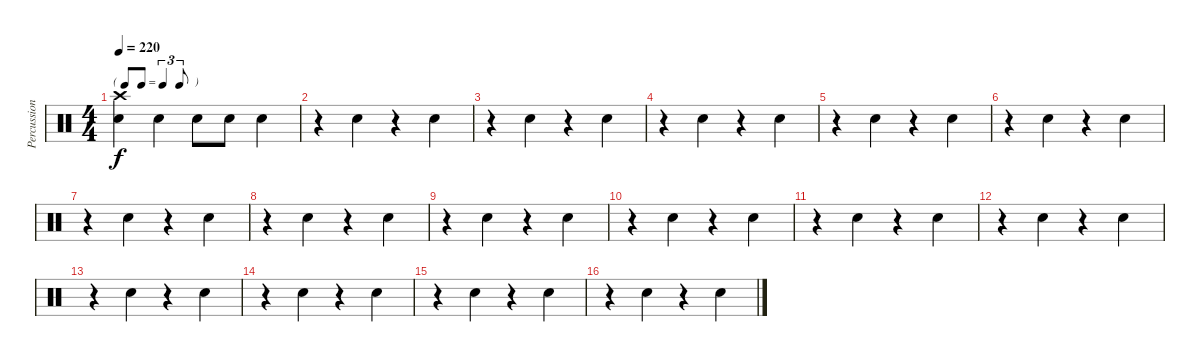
\track ("Percussion" "Percussion") {instrument percussion}
\staff {score}
\articulation defaults
\ts (4 4)
\tf triplet8th
\tempo 220
\clef neutral
\ks c
("Snare (hit) 2" "Crash high (hit)").4{dy f} "Snare (hit) 2".4 "Snare (hit) 2".8 "Snare (hit) 2".8 "Snare (hit) 2".4 |
r.4 "Snare (hit) 2".4 r.4 "Snare (hit) 2".4 |
r.4 "Snare (hit) 2".4 r.4 "Snare (hit) 2".4 |
r.4 "Snare (hit) 2".4 r.4 "Snare (hit) 2".4 |
r.4 "Snare (hit) 2".4 r.4 "Snare (hit) 2".4 |
r.4 "Snare (hit) 2".4 r.4 "Snare (hit) 2".4 |
r.4 "Snare (hit) 2".4 r.4 "Snare (hit) 2".4 |
r.4 "Snare (hit) 2".4 r.4 "Snare (hit) 2".4 |
r.4 "Snare (hit) 2".4 r.4 "Snare (hit) 2".4 |
r.4 "Snare (hit) 2".4 r.4 "Snare (hit) 2".4 |
r.4 "Snare (hit) 2".4 r.4 "Snare (hit) 2".4 |
r.4 "Snare (hit) 2".4 r.4 "Snare (hit) 2".4 |
r.4 "Snare (hit) 2".4 r.4 "Snare (hit) 2".4 |
r.4 "Snare (hit) 2".4 r.4 "Snare (hit) 2".4 |
r.4 "Snare (hit) 2".4 r.4 "Snare (hit) 2".4 |
r.4 "Snare (hit) 2".4 r.4 "Snare (hit) 2".4
